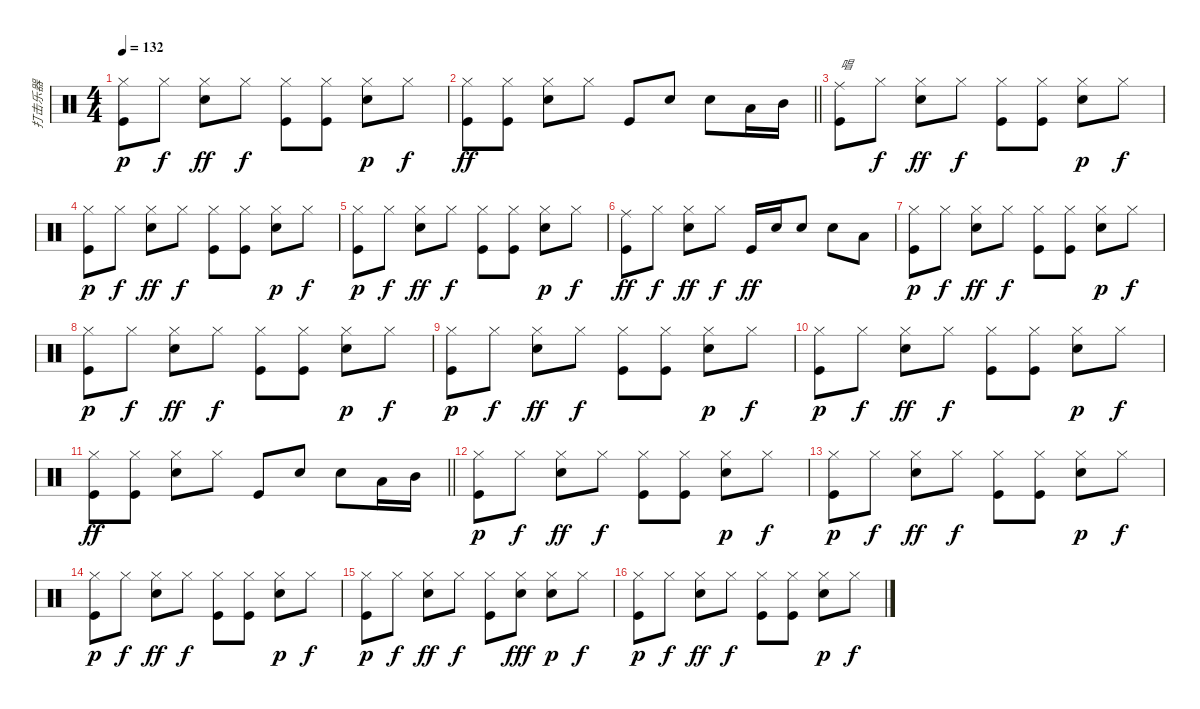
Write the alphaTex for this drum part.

\track ("打击乐器" "打击乐器") {instrument percussion}
\staff {score}
\articulation defaults
\ts (4 4)
\tempo 132
\clef neutral
\ks c
("Hi-Hat (closed)" "Kick (hit)").8{dy p} "Hi-Hat (closed)".8{dy f} ("Hi-Hat (closed)" "Snare (hit) 2").8{dy ff} "Hi-Hat (closed)".8{dy f} ("Hi-Hat (closed)" "Kick (hit)").8 ("Hi-Hat (closed)" "Kick (hit)").8 ("Hi-Hat (closed)" "Snare (hit) 2").8{dy p} "Hi-Hat (closed)".8{dy f} |
\barLineRight lightlight
("Kick (hit)" "Hi-Hat (closed)").8{dy ff} ("Kick (hit)" "Hi-Hat (closed)").8 ("Snare (hit) 2" "Hi-Hat (closed)").8 "Hi-Hat (closed)".8 "Kick (hit)".8 "Snare (hit) 2".8 "Snare (hit) 2".8 "Low Tom (hit)".16 "Mid Tom (hit)".16 |
("Ride (middle)" "Kick (hit)").8{txt "唱"} "Hi-Hat (closed)".8{dy f} ("Hi-Hat (closed)" "Snare (hit) 2").8{dy ff} "Hi-Hat (closed)".8{dy f} ("Hi-Hat (closed)" "Kick (hit)").8 ("Hi-Hat (closed)" "Kick (hit)").8 ("Hi-Hat (closed)" "Snare (hit) 2").8{dy p} "Hi-Hat (closed)".8{dy f} |
("Hi-Hat (closed)" "Kick (hit)").8{dy p} "Hi-Hat (closed)".8{dy f} ("Hi-Hat (closed)" "Snare (hit) 2").8{dy ff} "Hi-Hat (closed)".8{dy f} ("Hi-Hat (closed)" "Kick (hit)").8 ("Hi-Hat (closed)" "Kick (hit)").8 ("Hi-Hat (closed)" "Snare (hit) 2").8{dy p} "Hi-Hat (closed)".8{dy f} |
("Hi-Hat (closed)" "Kick (hit)").8{dy p} "Hi-Hat (closed)".8{dy f} ("Hi-Hat (closed)" "Snare (hit) 2").8{dy ff} "Hi-Hat (closed)".8{dy f} ("Hi-Hat (closed)" "Kick (hit)").8 ("Hi-Hat (closed)" "Kick (hit)").8 ("Hi-Hat (closed)" "Snare (hit) 2").8{dy p} "Hi-Hat (closed)".8{dy f} |
("Ride (middle)" "Kick (hit)").8{dy ff} "Hi-Hat (closed)".8{dy f} ("Hi-Hat (closed)" "Snare (hit) 2").8{dy ff} "Hi-Hat (closed)".8{dy f} "Kick (hit)".16{dy ff} "Snare (hit) 2".16 "Snare (hit) 2".8 "Snare (hit) 2".8 "Low Tom (hit)".8 |
("Hi-Hat (closed)" "Kick (hit)").8{dy p} "Hi-Hat (closed)".8{dy f} ("Hi-Hat (closed)" "Snare (hit) 2").8{dy ff} "Hi-Hat (closed)".8{dy f} ("Hi-Hat (closed)" "Kick (hit)").8 ("Hi-Hat (closed)" "Kick (hit)").8 ("Hi-Hat (closed)" "Snare (hit) 2").8{dy p} "Hi-Hat (closed)".8{dy f} |
("Hi-Hat (closed)" "Kick (hit)").8{dy p} "Hi-Hat (closed)".8{dy f} ("Hi-Hat (closed)" "Snare (hit) 2").8{dy ff} "Hi-Hat (closed)".8{dy f} ("Hi-Hat (closed)" "Kick (hit)").8 ("Hi-Hat (closed)" "Kick (hit)").8 ("Hi-Hat (closed)" "Snare (hit) 2").8{dy p} "Hi-Hat (closed)".8{dy f} |
("Hi-Hat (closed)" "Kick (hit)").8{dy p} "Hi-Hat (closed)".8{dy f} ("Hi-Hat (closed)" "Snare (hit) 2").8{dy ff} "Hi-Hat (closed)".8{dy f} ("Hi-Hat (closed)" "Kick (hit)").8 ("Hi-Hat (closed)" "Kick (hit)").8 ("Hi-Hat (closed)" "Snare (hit) 2").8{dy p} "Hi-Hat (closed)".8{dy f} |
("Hi-Hat (closed)" "Kick (hit)").8{dy p} "Hi-Hat (closed)".8{dy f} ("Hi-Hat (closed)" "Snare (hit) 2").8{dy ff} "Hi-Hat (closed)".8{dy f} ("Hi-Hat (closed)" "Kick (hit)").8 ("Hi-Hat (closed)" "Kick (hit)").8 ("Hi-Hat (closed)" "Snare (hit) 2").8{dy p} "Hi-Hat (closed)".8{dy f} |
\barLineRight lightlight
("Kick (hit)" "Hi-Hat (closed)").8{dy ff} ("Kick (hit)" "Hi-Hat (closed)").8 ("Snare (hit) 2" "Hi-Hat (closed)").8 "Hi-Hat (closed)".8 "Kick (hit)".8 "Snare (hit) 2".8 "Snare (hit) 2".8 "Low Tom (hit)".16 "Mid Tom (hit)".16 |
("Hi-Hat (closed)" "Kick (hit)").8{dy p} "Hi-Hat (closed)".8{dy f} ("Hi-Hat (closed)" "Snare (hit) 2").8{dy ff} "Hi-Hat (closed)".8{dy f} ("Hi-Hat (closed)" "Kick (hit)").8 ("Hi-Hat (closed)" "Kick (hit)").8 ("Hi-Hat (closed)" "Snare (hit) 2").8{dy p} "Hi-Hat (closed)".8{dy f} |
("Hi-Hat (closed)" "Kick (hit)").8{dy p} "Hi-Hat (closed)".8{dy f} ("Hi-Hat (closed)" "Snare (hit) 2").8{dy ff} "Hi-Hat (closed)".8{dy f} ("Hi-Hat (closed)" "Kick (hit)").8 ("Hi-Hat (closed)" "Kick (hit)").8 ("Hi-Hat (closed)" "Snare (hit) 2").8{dy p} "Hi-Hat (closed)".8{dy f} |
("Hi-Hat (closed)" "Kick (hit)").8{dy p} "Hi-Hat (closed)".8{dy f} ("Hi-Hat (closed)" "Snare (hit) 2").8{dy ff} "Hi-Hat (closed)".8{dy f} ("Hi-Hat (closed)" "Kick (hit)").8 ("Hi-Hat (closed)" "Kick (hit)").8 ("Hi-Hat (closed)" "Snare (hit) 2").8{dy p} "Hi-Hat (closed)".8{dy f} |
("Hi-Hat (closed)" "Kick (hit)").8{dy p} "Hi-Hat (closed)".8{dy f} ("Hi-Hat (closed)" "Snare (hit) 2").8{dy ff} "Hi-Hat (closed)".8{dy f} ("Hi-Hat (closed)" "Kick (hit)").8 ("Snare (hit) 2" "Hi-Hat (closed)").8{dy fff} ("Hi-Hat (closed)" "Snare (hit) 2").8{dy p} "Hi-Hat (closed)".8{dy f} |
("Hi-Hat (closed)" "Kick (hit)").8{dy p} "Hi-Hat (closed)".8{dy f} ("Hi-Hat (closed)" "Snare (hit) 2").8{dy ff} "Hi-Hat (closed)".8{dy f} ("Hi-Hat (closed)" "Kick (hit)").8 ("Hi-Hat (closed)" "Kick (hit)").8 ("Hi-Hat (closed)" "Snare (hit) 2").8{dy p} "Hi-Hat (closed)".8{dy f}
